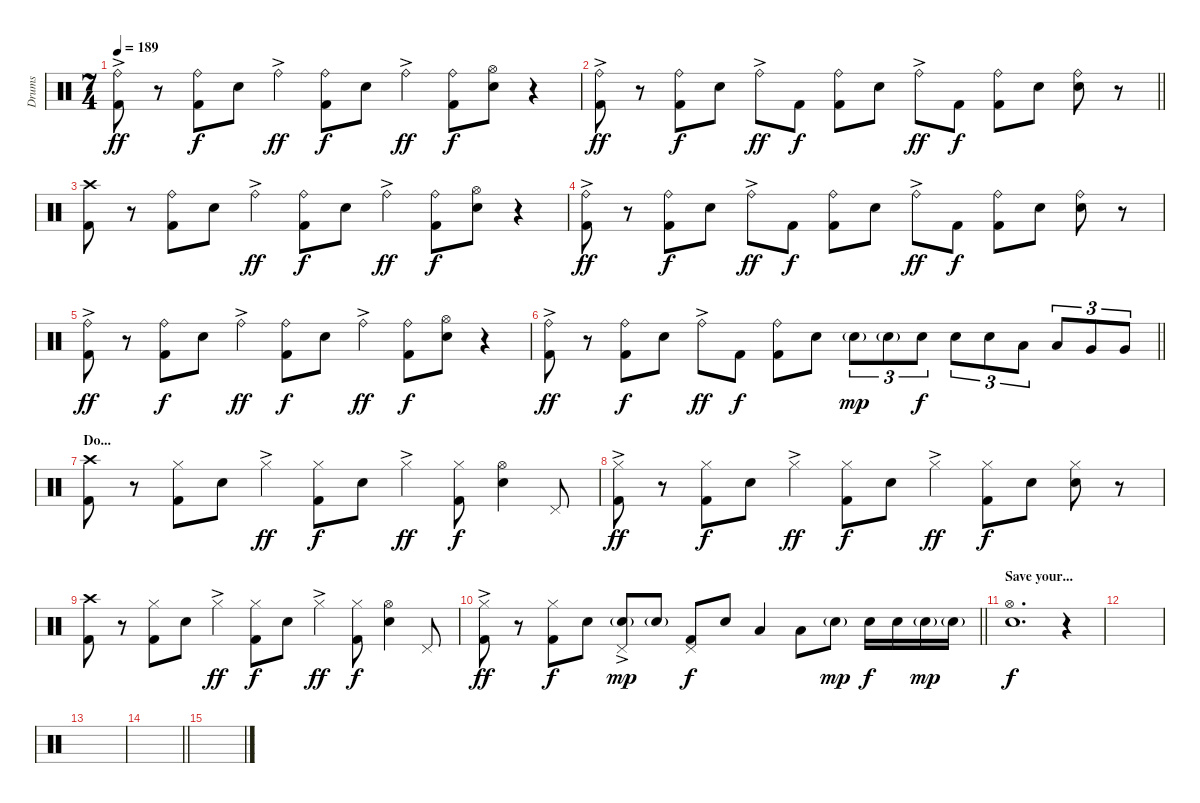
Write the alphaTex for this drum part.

\track ("Drums" "Drums") {instrument percussion}
\staff {score}
\articulation defaults
\ts (7 4)
\tempo 189
\clef neutral
\ks c
("Ride (bell)"{ac} "Kick (hit) 2").8{dy ff} r.8 ("Ride (bell)" "Kick (hit) 2").8{dy f} "Snare (hit) 2".8 "Ride (bell)"{ac}.4{dy ff} ("Ride (bell)" "Kick (hit) 2").8{dy f} "Snare (hit) 2".8 "Ride (bell)"{ac}.4{dy ff} ("Ride (bell)" "Kick (hit) 2").8{dy f} ("Hi-Hat (open)" "Snare (hit) 2").8 r.4 |
\barLineRight lightlight
("Ride (bell)"{ac} "Kick (hit) 2").8{dy ff} r.8 ("Ride (bell)" "Kick (hit) 2").8{dy f} "Snare (hit) 2".8 "Ride (bell)"{ac}.8{dy ff} "Kick (hit) 2".8{dy f} ("Ride (bell)" "Kick (hit) 2").8 "Snare (hit) 2".8 "Ride (bell)"{ac}.8{dy ff} "Kick (hit) 2".8{dy f} ("Ride (bell)" "Kick (hit) 2").8 "Snare (hit) 2".8 ("Ride (bell)" "Electric Snare (hit)").8 r.8 |
\section ("" "")
("Crash high (hit)" "Kick (hit) 2").8 r.8 ("Ride (bell)" "Kick (hit) 2").8 "Snare (hit) 2".8 "Ride (bell)"{ac}.4{dy ff} ("Ride (bell)" "Kick (hit) 2").8{dy f} "Snare (hit) 2".8 "Ride (bell)"{ac}.4{dy ff} ("Ride (bell)" "Kick (hit) 2").8{dy f} ("Hi-Hat (open)" "Snare (hit) 2").8 r.4 |
("Ride (bell)"{ac} "Kick (hit) 2").8{dy ff} r.8 ("Ride (bell)" "Kick (hit) 2").8{dy f} "Snare (hit) 2".8 "Ride (bell)"{ac}.8{dy ff} "Kick (hit) 2".8{dy f} ("Ride (bell)" "Kick (hit) 2").8 "Snare (hit) 2".8 "Ride (bell)"{ac}.8{dy ff} "Kick (hit) 2".8{dy f} ("Ride (bell)" "Kick (hit) 2").8 "Snare (hit) 2".8 ("Ride (bell)" "Electric Snare (hit)").8 r.8 |
("Ride (bell)"{ac} "Kick (hit) 2").8{dy ff} r.8 ("Ride (bell)" "Kick (hit) 2").8{dy f} "Snare (hit) 2".8 "Ride (bell)"{ac}.4{dy ff} ("Ride (bell)" "Kick (hit) 2").8{dy f} "Snare (hit) 2".8 "Ride (bell)"{ac}.4{dy ff} ("Ride (bell)" "Kick (hit) 2").8{dy f} ("Hi-Hat (open)" "Snare (hit) 2").8 r.4 |
\barLineRight lightlight
("Ride (bell)"{ac} "Kick (hit) 2").8{dy ff} r.8 ("Ride (bell)" "Kick (hit) 2").8{dy f} "Snare (hit) 2".8 "Ride (bell)"{ac}.8{dy ff} "Kick (hit) 2".8{dy f} ("Ride (bell)" "Kick (hit) 2").8 "Snare (hit) 2".8 "Electric Snare (hit)"{g}.8{tu (3 2) dy mp} "Electric Snare (hit)"{g}.8{tu (3 2)} "Snare (hit) 2".8{tu (3 2) dy f} "Snare (hit) 2".8{tu (3 2)} "Snare (hit) 2".8{tu (3 2)} "Low Tom (hit)".8{tu (3 2)} "Low Tom (hit)".8{tu (3 2)} "Very Low Tom (hit)".8{tu (3 2)} "Very Low Tom (hit)".8{tu (3 2)} |
\section ("" "Do...")
("Crash high (hit)" "Kick (hit) 2").8 r.8 ("Hi-Hat (closed)" "Kick (hit) 2").8 "Snare (hit) 2".8 "Hi-Hat (closed)"{ac}.4{dy ff} ("Hi-Hat (closed)" "Kick (hit) 2").8{dy f} "Snare (hit) 2".8 "Hi-Hat (closed)"{ac}.4{dy ff} ("Hi-Hat (closed)" "Kick (hit) 2").8{dy f} ("Hi-Hat (open)" "Snare (hit) 2").4 "Pedal Hi-Hat (hit)".8 |
("Hi-Hat (closed)"{ac} "Kick (hit) 2").8{dy ff} r.8 ("Hi-Hat (closed)" "Kick (hit) 2").8{dy f} "Snare (hit) 2".8 "Hi-Hat (closed)"{ac}.4{dy ff} ("Hi-Hat (closed)" "Kick (hit) 2").8{dy f} "Snare (hit) 2".8 "Hi-Hat (closed)"{ac}.4{dy ff} ("Hi-Hat (closed)" "Kick (hit) 2").8{dy f} "Snare (hit) 2".8 ("Hi-Hat (closed)" "Electric Snare (hit)").8 r.8 |
("Crash high (hit)" "Kick (hit) 2").8 r.8 ("Hi-Hat (closed)" "Kick (hit) 2").8 "Snare (hit) 2".8 "Hi-Hat (closed)"{ac}.4{dy ff} ("Hi-Hat (closed)" "Kick (hit) 2").8{dy f} "Snare (hit) 2".8 "Hi-Hat (closed)"{ac}.4{dy ff} ("Hi-Hat (closed)" "Kick (hit) 2").8{dy f} ("Hi-Hat (open)" "Snare (hit) 2").4 "Pedal Hi-Hat (hit)".8 |
\barLineRight lightlight
("Hi-Hat (closed)"{ac} "Kick (hit) 2").8{dy ff} r.8 ("Hi-Hat (closed)" "Kick (hit) 2").8{dy f} "Snare (hit) 2".8 ("Pedal Hi-Hat (hit)"{ac} "Electric Snare (hit)"{g}).8{dy mp} "Electric Snare (hit)"{g}.8 ("Pedal Hi-Hat (hit)" "Kick (hit) 2").8{dy f} "Snare (hit) 2".8 "Low Tom (hit)".4 "Low Tom (hit)".8 "Electric Snare (hit)"{g}.8{dy mp} "Electric Snare (hit)".16{dy f} "Electric Snare (hit)".16 "Electric Snare (hit)"{g}.16{dy mp} "Electric Snare (hit)"{g}.16 |
\section ("" "Save your...")
("Hi-Hat (open)" "Snare (hit) 2").1{d dy f} r.4 |
|
|
\barLineRight lightlight
|
\section ("" "")
